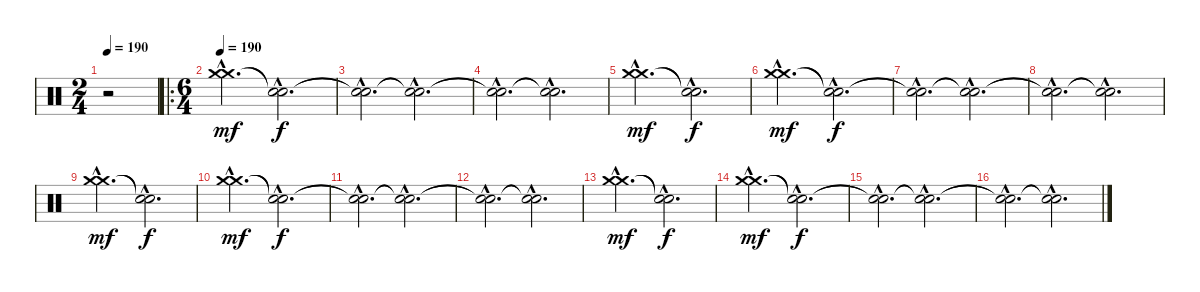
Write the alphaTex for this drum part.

\track "" {instrument percussion}
\staff {score}
\articulation defaults
\ts (2 4)
\tempo 190
\clef neutral
\ks c
r.2{dy mf} |
\ro
\ts (6 4)
\tempo 190
("Crash medium (hit)"{hac} "Crash medium (hit)"{hac}).2{d} ("Snare (hit)"{hac t} "Snare (hit)"{hac t}).2{d dy f} |
("Snare (hit)"{hac t} "Snare (hit)"{hac t}).2{d} ("Snare (hit)"{hac t} "Snare (hit)"{hac t}).2{d} |
("Snare (hit)"{hac t} "Snare (hit)"{hac t}).2{d} ("Snare (hit)"{hac t} "Snare (hit)"{hac t}).2{d} |
("Crash medium (hit)"{hac} "Crash medium (hit)"{hac}).2{d dy mf} ("Snare (hit)"{hac t} "Snare (hit)"{hac t}).2{d dy f} |
("Crash medium (hit)"{hac} "Crash medium (hit)"{hac}).2{d dy mf} ("Snare (hit)"{hac t} "Snare (hit)"{hac t}).2{d dy f} |
("Snare (hit)"{hac t} "Snare (hit)"{hac t}).2{d} ("Snare (hit)"{hac t} "Snare (hit)"{hac t}).2{d} |
("Snare (hit)"{hac t} "Snare (hit)"{hac t}).2{d} ("Snare (hit)"{hac t} "Snare (hit)"{hac t}).2{d} |
("Crash medium (hit)"{hac} "Crash medium (hit)"{hac}).2{d dy mf} ("Snare (hit)"{hac t} "Snare (hit)"{hac t}).2{d dy f} |
("Crash medium (hit)"{hac} "Crash medium (hit)"{hac}).2{d dy mf} ("Snare (hit)"{hac t} "Snare (hit)"{hac t}).2{d dy f} |
("Snare (hit)"{hac t} "Snare (hit)"{hac t}).2{d} ("Snare (hit)"{hac t} "Snare (hit)"{hac t}).2{d} |
("Snare (hit)"{hac t} "Snare (hit)"{hac t}).2{d} ("Snare (hit)"{hac t} "Snare (hit)"{hac t}).2{d} |
("Crash medium (hit)"{hac} "Crash medium (hit)"{hac}).2{d dy mf} ("Snare (hit)"{hac t} "Snare (hit)"{hac t}).2{d dy f} |
("Crash medium (hit)"{hac} "Crash medium (hit)"{hac}).2{d dy mf} ("Snare (hit)"{hac t} "Snare (hit)"{hac t}).2{d dy f} |
("Snare (hit)"{hac t} "Snare (hit)"{hac t}).2{d} ("Snare (hit)"{hac t} "Snare (hit)"{hac t}).2{d} |
("Snare (hit)"{hac t} "Snare (hit)"{hac t}).2{d} ("Snare (hit)"{hac t} "Snare (hit)"{hac t}).2{d}
